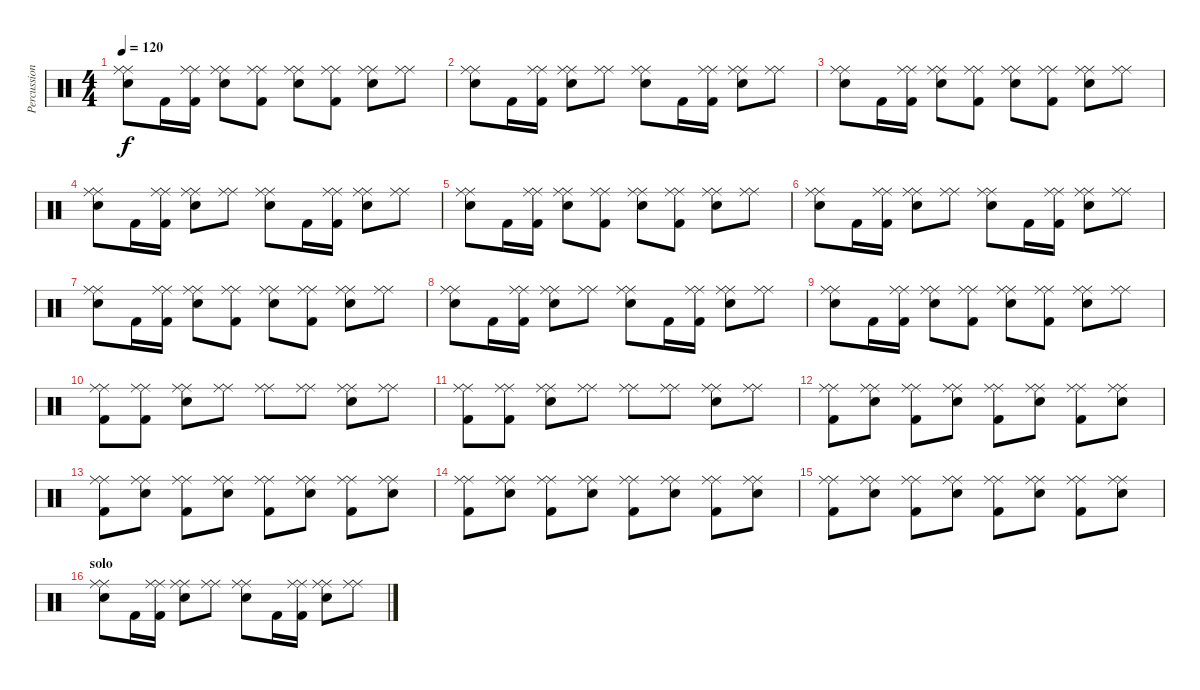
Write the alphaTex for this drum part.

\track ("Percussions" "Percussion") {instrument percussion}
\staff {score}
\articulation defaults
\ts (4 4)
\tempo 120
\clef neutral
\ks c
("Ride (middle)" "Ride (middle)" "Electric Snare (hit)").8{dy f} "Kick (hit) 2".16 ("Ride (middle)" "Ride (middle)" "Kick (hit) 2").16 ("Ride (middle)" "Ride (middle)" "Electric Snare (hit)").8 ("Ride (middle)" "Ride (middle)" "Kick (hit) 2").8 ("Ride (middle)" "Ride (middle)" "Electric Snare (hit)").8 ("Ride (middle)" "Ride (middle)" "Kick (hit) 2").8 ("Ride (middle)" "Ride (middle)" "Electric Snare (hit)").8 ("Ride (middle)" "Ride (middle)").8 |
("Ride (middle)" "Ride (middle)" "Electric Snare (hit)").8 "Kick (hit) 2".16 ("Ride (middle)" "Ride (middle)" "Kick (hit) 2").16 ("Ride (middle)" "Ride (middle)" "Electric Snare (hit)").8 ("Ride (middle)" "Ride (middle)").8 ("Ride (middle)" "Ride (middle)" "Electric Snare (hit)").8 "Kick (hit) 2".16 ("Ride (middle)" "Ride (middle)" "Kick (hit) 2").16 ("Ride (middle)" "Ride (middle)" "Electric Snare (hit)").8 ("Ride (middle)" "Ride (middle)").8 |
("Ride (middle)" "Ride (middle)" "Electric Snare (hit)").8 "Kick (hit) 2".16 ("Ride (middle)" "Ride (middle)" "Kick (hit) 2").16 ("Ride (middle)" "Ride (middle)" "Electric Snare (hit)").8 ("Ride (middle)" "Ride (middle)" "Kick (hit) 2").8 ("Ride (middle)" "Ride (middle)" "Electric Snare (hit)").8 ("Ride (middle)" "Ride (middle)" "Kick (hit) 2").8 ("Ride (middle)" "Ride (middle)" "Electric Snare (hit)").8 ("Ride (middle)" "Ride (middle)").8 |
("Ride (middle)" "Ride (middle)" "Electric Snare (hit)").8 "Kick (hit) 2".16 ("Ride (middle)" "Ride (middle)" "Kick (hit) 2").16 ("Ride (middle)" "Ride (middle)" "Electric Snare (hit)").8 ("Ride (middle)" "Ride (middle)").8 ("Ride (middle)" "Ride (middle)" "Electric Snare (hit)").8 "Kick (hit) 2".16 ("Ride (middle)" "Ride (middle)" "Kick (hit) 2").16 ("Ride (middle)" "Ride (middle)" "Electric Snare (hit)").8 ("Ride (middle)" "Ride (middle)").8 |
("Ride (middle)" "Ride (middle)" "Electric Snare (hit)").8 "Kick (hit) 2".16 ("Ride (middle)" "Ride (middle)" "Kick (hit) 2").16 ("Ride (middle)" "Ride (middle)" "Electric Snare (hit)").8 ("Ride (middle)" "Ride (middle)" "Kick (hit) 2").8 ("Ride (middle)" "Ride (middle)" "Electric Snare (hit)").8 ("Ride (middle)" "Ride (middle)" "Kick (hit) 2").8 ("Ride (middle)" "Ride (middle)" "Electric Snare (hit)").8 ("Ride (middle)" "Ride (middle)").8 |
("Ride (middle)" "Ride (middle)" "Electric Snare (hit)").8 "Kick (hit) 2".16 ("Ride (middle)" "Ride (middle)" "Kick (hit) 2").16 ("Ride (middle)" "Ride (middle)" "Electric Snare (hit)").8 ("Ride (middle)" "Ride (middle)").8 ("Ride (middle)" "Ride (middle)" "Electric Snare (hit)").8 "Kick (hit) 2".16 ("Ride (middle)" "Ride (middle)" "Kick (hit) 2").16 ("Ride (middle)" "Ride (middle)" "Electric Snare (hit)").8 ("Ride (middle)" "Ride (middle)").8 |
("Ride (middle)" "Ride (middle)" "Electric Snare (hit)").8 "Kick (hit) 2".16 ("Ride (middle)" "Ride (middle)" "Kick (hit) 2").16 ("Ride (middle)" "Ride (middle)" "Electric Snare (hit)").8 ("Ride (middle)" "Ride (middle)" "Kick (hit) 2").8 ("Ride (middle)" "Ride (middle)" "Electric Snare (hit)").8 ("Ride (middle)" "Ride (middle)" "Kick (hit) 2").8 ("Ride (middle)" "Ride (middle)" "Electric Snare (hit)").8 ("Ride (middle)" "Ride (middle)").8 |
("Ride (middle)" "Ride (middle)" "Electric Snare (hit)").8 "Kick (hit) 2".16 ("Ride (middle)" "Ride (middle)" "Kick (hit) 2").16 ("Ride (middle)" "Ride (middle)" "Electric Snare (hit)").8 ("Ride (middle)" "Ride (middle)").8 ("Ride (middle)" "Ride (middle)" "Electric Snare (hit)").8 "Kick (hit) 2".16 ("Ride (middle)" "Ride (middle)" "Kick (hit) 2").16 ("Ride (middle)" "Ride (middle)" "Electric Snare (hit)").8 ("Ride (middle)" "Ride (middle)").8 |
("Ride (middle)" "Ride (middle)" "Electric Snare (hit)").8 "Kick (hit) 2".16 ("Ride (middle)" "Ride (middle)" "Kick (hit) 2").16 ("Ride (middle)" "Ride (middle)" "Electric Snare (hit)").8 ("Ride (middle)" "Ride (middle)" "Kick (hit) 2").8 ("Ride (middle)" "Ride (middle)" "Electric Snare (hit)").8 ("Ride (middle)" "Ride (middle)" "Kick (hit) 2").8 ("Ride (middle)" "Ride (middle)" "Electric Snare (hit)").8 ("Ride (middle)" "Ride (middle)").8 |
("Ride (middle)" "Ride (middle)" "Kick (hit) 2").8 ("Ride (middle)" "Ride (middle)" "Kick (hit) 2").8 ("Ride (middle)" "Ride (middle)" "Electric Snare (hit)").8 ("Ride (middle)" "Ride (middle)").8 ("Ride (middle)" "Ride (middle)").8 ("Ride (middle)" "Ride (middle)").8 ("Ride (middle)" "Ride (middle)" "Electric Snare (hit)").8 ("Ride (middle)" "Ride (middle)").8 |
("Ride (middle)" "Ride (middle)" "Kick (hit) 2").8 ("Ride (middle)" "Ride (middle)" "Kick (hit) 2").8 ("Ride (middle)" "Ride (middle)" "Electric Snare (hit)").8 ("Ride (middle)" "Ride (middle)").8 ("Ride (middle)" "Ride (middle)").8 ("Ride (middle)" "Ride (middle)").8 ("Ride (middle)" "Ride (middle)" "Electric Snare (hit)").8 ("Ride (middle)" "Ride (middle)").8 |
("Ride (middle)" "Ride (middle)" "Kick (hit) 2").8 ("Ride (middle)" "Ride (middle)" "Electric Snare (hit)").8 ("Ride (middle)" "Ride (middle)" "Kick (hit) 2").8 ("Ride (middle)" "Ride (middle)" "Electric Snare (hit)").8 ("Ride (middle)" "Ride (middle)" "Kick (hit) 2").8 ("Ride (middle)" "Ride (middle)" "Electric Snare (hit)").8 ("Ride (middle)" "Ride (middle)" "Kick (hit) 2").8 ("Ride (middle)" "Ride (middle)" "Electric Snare (hit)").8 |
("Ride (middle)" "Ride (middle)" "Kick (hit) 2").8 ("Ride (middle)" "Ride (middle)" "Electric Snare (hit)").8 ("Ride (middle)" "Ride (middle)" "Kick (hit) 2").8 ("Ride (middle)" "Ride (middle)" "Electric Snare (hit)").8 ("Ride (middle)" "Ride (middle)" "Kick (hit) 2").8 ("Ride (middle)" "Ride (middle)" "Electric Snare (hit)").8 ("Ride (middle)" "Ride (middle)" "Kick (hit) 2").8 ("Ride (middle)" "Ride (middle)" "Electric Snare (hit)").8 |
("Ride (middle)" "Ride (middle)" "Kick (hit) 2").8 ("Ride (middle)" "Ride (middle)" "Electric Snare (hit)").8 ("Ride (middle)" "Ride (middle)" "Kick (hit) 2").8 ("Ride (middle)" "Ride (middle)" "Electric Snare (hit)").8 ("Ride (middle)" "Ride (middle)" "Kick (hit) 2").8 ("Ride (middle)" "Ride (middle)" "Electric Snare (hit)").8 ("Ride (middle)" "Ride (middle)" "Kick (hit) 2").8 ("Ride (middle)" "Ride (middle)" "Electric Snare (hit)").8 |
("Ride (middle)" "Ride (middle)" "Kick (hit) 2").8 ("Ride (middle)" "Ride (middle)" "Electric Snare (hit)").8 ("Ride (middle)" "Ride (middle)" "Kick (hit) 2").8 ("Ride (middle)" "Ride (middle)" "Electric Snare (hit)").8 ("Ride (middle)" "Ride (middle)" "Kick (hit) 2").8 ("Ride (middle)" "Ride (middle)" "Electric Snare (hit)").8 ("Ride (middle)" "Ride (middle)" "Kick (hit) 2").8 ("Ride (middle)" "Ride (middle)" "Electric Snare (hit)").8 |
\section ("" "solo")
("Ride (middle)" "Ride (middle)" "Electric Snare (hit)").8 "Kick (hit) 2".16 ("Ride (middle)" "Ride (middle)" "Kick (hit) 2").16 ("Ride (middle)" "Ride (middle)" "Electric Snare (hit)").8 ("Ride (middle)" "Ride (middle)").8 ("Ride (middle)" "Ride (middle)" "Electric Snare (hit)").8 "Kick (hit) 2".16 ("Ride (middle)" "Ride (middle)" "Kick (hit) 2").16 ("Ride (middle)" "Ride (middle)" "Electric Snare (hit)").8 ("Ride (middle)" "Ride (middle)").8
